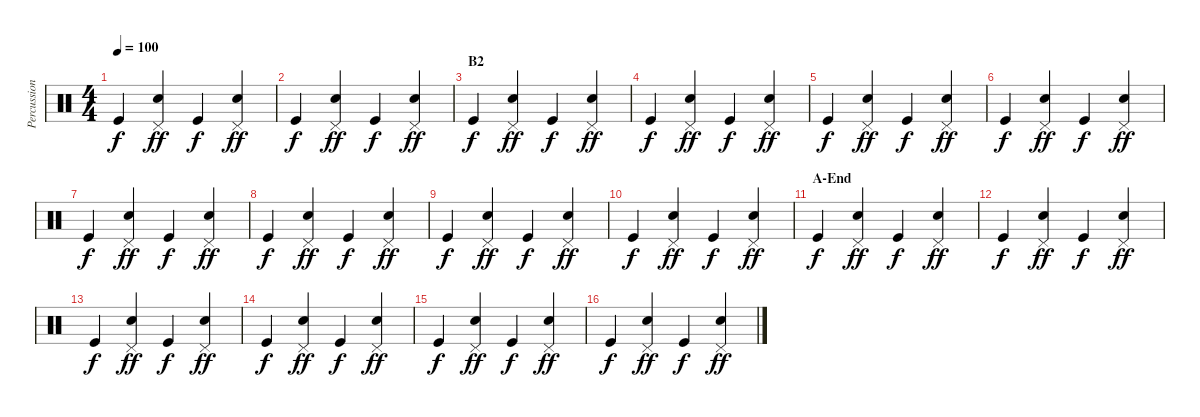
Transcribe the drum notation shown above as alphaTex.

\track ("Percussion" "Percussion") {instrument percussion}
\staff {score}
\articulation defaults
\ts (4 4)
\tempo 100
\clef neutral
\ks c "Kick (hit)".4{dy f}
("Snare (hit) 2" "Pedal Hi-Hat (hit)").4{dy ff} "Kick (hit)".4{dy f} ("Snare (hit) 2" "Pedal Hi-Hat (hit)").4{dy ff} |
"Kick (hit)".4{dy f} ("Snare (hit) 2" "Pedal Hi-Hat (hit)").4{dy ff} "Kick (hit)".4{dy f} ("Snare (hit) 2" "Pedal Hi-Hat (hit)").4{dy ff} |
\section ("" "B2")
"Kick (hit)".4{dy f} ("Snare (hit) 2" "Pedal Hi-Hat (hit)").4{dy ff} "Kick (hit)".4{dy f} ("Snare (hit) 2" "Pedal Hi-Hat (hit)").4{dy ff} |
"Kick (hit)".4{dy f} ("Snare (hit) 2" "Pedal Hi-Hat (hit)").4{dy ff} "Kick (hit)".4{dy f} ("Snare (hit) 2" "Pedal Hi-Hat (hit)").4{dy ff} |
"Kick (hit)".4{dy f} ("Snare (hit) 2" "Pedal Hi-Hat (hit)").4{dy ff} "Kick (hit)".4{dy f} ("Snare (hit) 2" "Pedal Hi-Hat (hit)").4{dy ff} |
"Kick (hit)".4{dy f} ("Snare (hit) 2" "Pedal Hi-Hat (hit)").4{dy ff} "Kick (hit)".4{dy f} ("Snare (hit) 2" "Pedal Hi-Hat (hit)").4{dy ff} |
"Kick (hit)".4{dy f} ("Snare (hit) 2" "Pedal Hi-Hat (hit)").4{dy ff} "Kick (hit)".4{dy f} ("Snare (hit) 2" "Pedal Hi-Hat (hit)").4{dy ff} |
"Kick (hit)".4{dy f} ("Snare (hit) 2" "Pedal Hi-Hat (hit)").4{dy ff} "Kick (hit)".4{dy f} ("Snare (hit) 2" "Pedal Hi-Hat (hit)").4{dy ff} |
"Kick (hit)".4{dy f} ("Snare (hit) 2" "Pedal Hi-Hat (hit)").4{dy ff} "Kick (hit)".4{dy f} ("Snare (hit) 2" "Pedal Hi-Hat (hit)").4{dy ff} |
"Kick (hit)".4{dy f} ("Snare (hit) 2" "Pedal Hi-Hat (hit)").4{dy ff} "Kick (hit)".4{dy f} ("Snare (hit) 2" "Pedal Hi-Hat (hit)").4{dy ff} |
\section ("" "A-End")
"Kick (hit)".4{dy f} ("Snare (hit) 2" "Pedal Hi-Hat (hit)").4{dy ff} "Kick (hit)".4{dy f} ("Snare (hit) 2" "Pedal Hi-Hat (hit)").4{dy ff} |
"Kick (hit)".4{dy f} ("Snare (hit) 2" "Pedal Hi-Hat (hit)").4{dy ff} "Kick (hit)".4{dy f} ("Snare (hit) 2" "Pedal Hi-Hat (hit)").4{dy ff} |
"Kick (hit)".4{dy f} ("Snare (hit) 2" "Pedal Hi-Hat (hit)").4{dy ff} "Kick (hit)".4{dy f} ("Snare (hit) 2" "Pedal Hi-Hat (hit)").4{dy ff} |
"Kick (hit)".4{dy f} ("Snare (hit) 2" "Pedal Hi-Hat (hit)").4{dy ff} "Kick (hit)".4{dy f} ("Snare (hit) 2" "Pedal Hi-Hat (hit)").4{dy ff} |
"Kick (hit)".4{dy f} ("Snare (hit) 2" "Pedal Hi-Hat (hit)").4{dy ff} "Kick (hit)".4{dy f} ("Snare (hit) 2" "Pedal Hi-Hat (hit)").4{dy ff} |
"Kick (hit)".4{dy f} ("Snare (hit) 2" "Pedal Hi-Hat (hit)").4{dy ff} "Kick (hit)".4{dy f} ("Snare (hit) 2" "Pedal Hi-Hat (hit)").4{dy ff}
